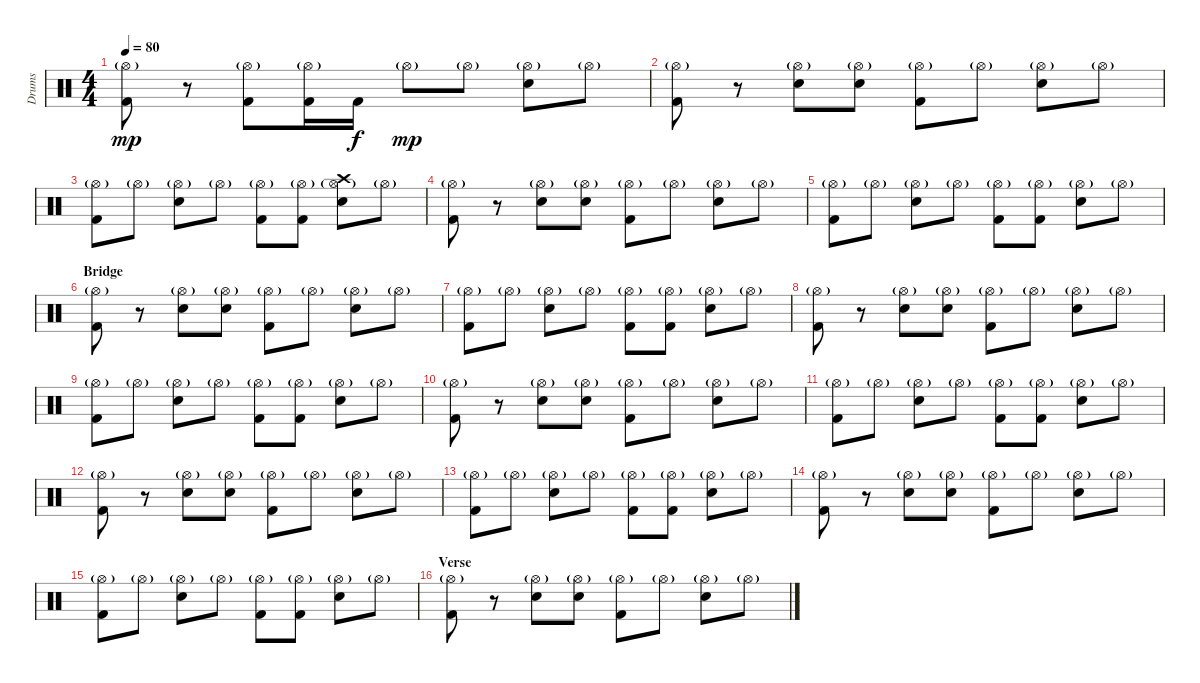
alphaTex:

\track ("Drums" "Drums") {instrument percussion}
\staff {score}
\articulation defaults
\ts (4 4)
\tempo 80
\clef neutral
\ks c
("Hi-Hat (open)"{g} "Kick (hit) 2").8{dy mp} r.8 ("Hi-Hat (open)"{g} "Kick (hit) 2").8 ("Hi-Hat (open)"{g} "Kick (hit) 2").16 "Kick (hit) 2".16{dy f} "Hi-Hat (open)"{g}.8{dy mp} "Hi-Hat (open)"{g}.8 ("Hi-Hat (open)"{g} "Snare (hit) 2").8 "Hi-Hat (open)"{g}.8 |
("Hi-Hat (open)"{g} "Kick (hit) 2").8 r.8 ("Hi-Hat (open)"{g} "Snare (hit) 2").8 ("Hi-Hat (open)"{g} "Snare (hit) 2").8 ("Hi-Hat (open)"{g} "Kick (hit) 2").8 "Hi-Hat (open)"{g}.8 ("Hi-Hat (open)"{g} "Snare (hit) 2").8 "Hi-Hat (open)"{g}.8 |
("Hi-Hat (open)"{g} "Kick (hit) 2").8 "Hi-Hat (open)"{g}.8 ("Hi-Hat (open)"{g} "Snare (hit) 2").8 "Hi-Hat (open)"{g}.8 ("Hi-Hat (open)"{g} "Kick (hit) 2").8 ("Hi-Hat (open)"{g} "Kick (hit) 2").8 ("Hi-Hat (open)"{g} "Crash high (hit)" "Snare (hit) 2").8 "Hi-Hat (open)"{g}.8 |
("Hi-Hat (open)"{g} "Kick (hit) 2").8 r.8 ("Hi-Hat (open)"{g} "Snare (hit) 2").8 ("Hi-Hat (open)"{g} "Snare (hit) 2").8 ("Hi-Hat (open)"{g} "Kick (hit) 2").8 "Hi-Hat (open)"{g}.8 ("Hi-Hat (open)"{g} "Snare (hit) 2").8 "Hi-Hat (open)"{g}.8 |
("Hi-Hat (open)"{g} "Kick (hit) 2").8 "Hi-Hat (open)"{g}.8 ("Hi-Hat (open)"{g} "Snare (hit) 2").8 "Hi-Hat (open)"{g}.8 ("Hi-Hat (open)"{g} "Kick (hit) 2").8 ("Hi-Hat (open)"{g} "Kick (hit) 2").8 ("Hi-Hat (open)"{g} "Snare (hit) 2").8 "Hi-Hat (open)"{g}.8 |
\section ("" "Bridge")
("Hi-Hat (open)"{g} "Kick (hit) 2").8 r.8 ("Hi-Hat (open)"{g} "Snare (hit) 2").8 ("Hi-Hat (open)"{g} "Snare (hit) 2").8 ("Hi-Hat (open)"{g} "Kick (hit) 2").8 "Hi-Hat (open)"{g}.8 ("Hi-Hat (open)"{g} "Snare (hit) 2").8 "Hi-Hat (open)"{g}.8 |
("Hi-Hat (open)"{g} "Kick (hit) 2").8 "Hi-Hat (open)"{g}.8 ("Hi-Hat (open)"{g} "Snare (hit) 2").8 "Hi-Hat (open)"{g}.8 ("Hi-Hat (open)"{g} "Kick (hit) 2").8 ("Hi-Hat (open)"{g} "Kick (hit) 2").8 ("Hi-Hat (open)"{g} "Snare (hit) 2").8 "Hi-Hat (open)"{g}.8 |
("Hi-Hat (open)"{g} "Kick (hit) 2").8 r.8 ("Hi-Hat (open)"{g} "Snare (hit) 2").8 ("Hi-Hat (open)"{g} "Snare (hit) 2").8 ("Hi-Hat (open)"{g} "Kick (hit) 2").8 "Hi-Hat (open)"{g}.8 ("Hi-Hat (open)"{g} "Snare (hit) 2").8 "Hi-Hat (open)"{g}.8 |
("Hi-Hat (open)"{g} "Kick (hit) 2").8 "Hi-Hat (open)"{g}.8 ("Hi-Hat (open)"{g} "Snare (hit) 2").8 "Hi-Hat (open)"{g}.8 ("Hi-Hat (open)"{g} "Kick (hit) 2").8 ("Hi-Hat (open)"{g} "Kick (hit) 2").8 ("Hi-Hat (open)"{g} "Snare (hit) 2").8 "Hi-Hat (open)"{g}.8 |
("Hi-Hat (open)"{g} "Kick (hit) 2").8 r.8 ("Hi-Hat (open)"{g} "Snare (hit) 2").8 ("Hi-Hat (open)"{g} "Snare (hit) 2").8 ("Hi-Hat (open)"{g} "Kick (hit) 2").8 "Hi-Hat (open)"{g}.8 ("Hi-Hat (open)"{g} "Snare (hit) 2").8 "Hi-Hat (open)"{g}.8 |
("Hi-Hat (open)"{g} "Kick (hit) 2").8 "Hi-Hat (open)"{g}.8 ("Hi-Hat (open)"{g} "Snare (hit) 2").8 "Hi-Hat (open)"{g}.8 ("Hi-Hat (open)"{g} "Kick (hit) 2").8 ("Hi-Hat (open)"{g} "Kick (hit) 2").8 ("Hi-Hat (open)"{g} "Snare (hit) 2").8 "Hi-Hat (open)"{g}.8 |
("Hi-Hat (open)"{g} "Kick (hit) 2").8 r.8 ("Hi-Hat (open)"{g} "Snare (hit) 2").8 ("Hi-Hat (open)"{g} "Snare (hit) 2").8 ("Hi-Hat (open)"{g} "Kick (hit) 2").8 "Hi-Hat (open)"{g}.8 ("Hi-Hat (open)"{g} "Snare (hit) 2").8 "Hi-Hat (open)"{g}.8 |
("Hi-Hat (open)"{g} "Kick (hit) 2").8 "Hi-Hat (open)"{g}.8 ("Hi-Hat (open)"{g} "Snare (hit) 2").8 "Hi-Hat (open)"{g}.8 ("Hi-Hat (open)"{g} "Kick (hit) 2").8 ("Hi-Hat (open)"{g} "Kick (hit) 2").8 ("Hi-Hat (open)"{g} "Snare (hit) 2").8 "Hi-Hat (open)"{g}.8 |
("Hi-Hat (open)"{g} "Kick (hit) 2").8 r.8 ("Hi-Hat (open)"{g} "Snare (hit) 2").8 ("Hi-Hat (open)"{g} "Snare (hit) 2").8 ("Hi-Hat (open)"{g} "Kick (hit) 2").8 "Hi-Hat (open)"{g}.8 ("Hi-Hat (open)"{g} "Snare (hit) 2").8 "Hi-Hat (open)"{g}.8 |
("Hi-Hat (open)"{g} "Kick (hit) 2").8 "Hi-Hat (open)"{g}.8 ("Hi-Hat (open)"{g} "Snare (hit) 2").8 "Hi-Hat (open)"{g}.8 ("Hi-Hat (open)"{g} "Kick (hit) 2").8 ("Hi-Hat (open)"{g} "Kick (hit) 2").8 ("Hi-Hat (open)"{g} "Snare (hit) 2").8 "Hi-Hat (open)"{g}.8 |
\section ("" "Verse")
("Hi-Hat (open)"{g} "Kick (hit) 2").8 r.8 ("Hi-Hat (open)"{g} "Snare (hit) 2").8 ("Hi-Hat (open)"{g} "Snare (hit) 2").8 ("Hi-Hat (open)"{g} "Kick (hit) 2").8 "Hi-Hat (open)"{g}.8 ("Hi-Hat (open)"{g} "Snare (hit) 2").8 "Hi-Hat (open)"{g}.8
